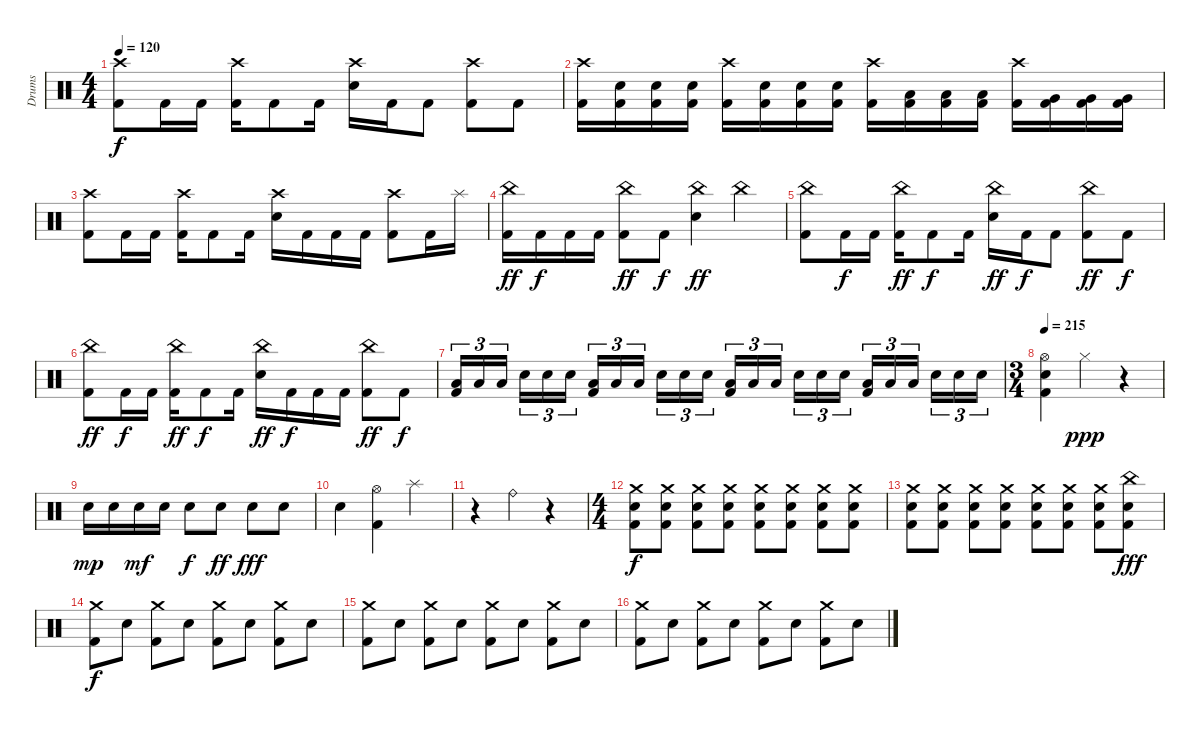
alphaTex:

\track ("Drums" "Drums") {instrument percussion}
\staff {score}
\articulation defaults
\ts (4 4)
\tempo 120
\clef neutral
\ks c
("Crash high (hit)" "Kick (hit) 2").8{dy f} "Kick (hit) 2".16 "Kick (hit) 2".16 ("Crash high (hit)" "Kick (hit) 2").16 "Kick (hit) 2".8 "Kick (hit) 2".16 ("Crash high (hit)" "Electric Snare (hit)").16 "Kick (hit) 2".16 "Kick (hit) 2".8 ("Crash high (hit)" "Kick (hit) 2").8 "Kick (hit) 2".8 |
("Crash high (hit)" "Kick (hit) 2").16 ("Electric Snare (hit)" "Kick (hit) 2").16 ("Electric Snare (hit)" "Kick (hit) 2").16 ("Electric Snare (hit)" "Kick (hit) 2").16 ("Crash high (hit)" "Kick (hit) 2").16 ("Electric Snare (hit)" "Kick (hit) 2").16 ("Electric Snare (hit)" "Kick (hit) 2").16 ("Electric Snare (hit)" "Kick (hit) 2").16 ("Crash high (hit)" "Kick (hit) 2").16 ("Low Tom (hit)" "Kick (hit) 2").16 ("Low Tom (hit)" "Kick (hit) 2").16 ("Low Tom (hit)" "Kick (hit) 2").16 ("Crash high (hit)" "Kick (hit) 2").16 ("Very Low Tom (hit)" "Kick (hit) 2").16 ("Very Low Tom (hit)" "Kick (hit) 2").16 ("Very Low Tom (hit)" "Kick (hit) 2").16 |
("Crash high (hit)" "Kick (hit) 2").8 "Kick (hit) 2".16 "Kick (hit) 2".16 ("Crash high (hit)" "Kick (hit) 2").16 "Kick (hit) 2".8 "Kick (hit) 2".16 ("Crash high (hit)" "Electric Snare (hit)").16 "Kick (hit) 2".16 "Kick (hit) 2".16 "Kick (hit) 2".16 ("Crash high (hit)" "Kick (hit) 2").8 "Kick (hit) 2".16 "Splash (hit)".16 |
("China (hit)" "Kick (hit) 2").16{dy ff} "Kick (hit) 2".16{dy f} "Kick (hit) 2".16 "Kick (hit) 2".16 ("China (hit)" "Kick (hit) 2").8{dy ff} "Kick (hit) 2".8{dy f} ("China (hit)" "Electric Snare (hit)").4{dy ff} "China (hit)".4 |
("China (hit)" "Kick (hit) 2").8 "Kick (hit) 2".16{dy f} "Kick (hit) 2".16 ("China (hit)" "Kick (hit) 2").16{dy ff} "Kick (hit) 2".8{dy f} "Kick (hit) 2".16 ("China (hit)" "Electric Snare (hit)").16{dy ff} "Kick (hit) 2".16{dy f} "Kick (hit) 2".8 ("China (hit)" "Kick (hit) 2").8{dy ff} "Kick (hit) 2".8{dy f} |
("China (hit)" "Kick (hit) 2").8{dy ff} "Kick (hit) 2".16{dy f} "Kick (hit) 2".16 ("China (hit)" "Kick (hit) 2").16{dy ff} "Kick (hit) 2".8{dy f} "Kick (hit) 2".16 ("China (hit)" "Electric Snare (hit)").16{dy ff} "Kick (hit) 2".16{dy f} "Kick (hit) 2".16 "Kick (hit) 2".16 ("China (hit)" "Kick (hit) 2").8{dy ff} "Kick (hit) 2".8{dy f} |
("Low Tom (hit)" "Kick (hit) 2").16{tu (3 2)} "Low Tom (hit)".16{tu (3 2)} "Low Tom (hit)".16{tu (3 2) beam splitsecondary} "Electric Snare (hit)".16{tu (3 2)} "Electric Snare (hit)".16{tu (3 2)} "Electric Snare (hit)".16{tu (3 2)} ("Low Tom (hit)" "Kick (hit) 2").16{tu (3 2)} "Low Tom (hit)".16{tu (3 2)} "Low Tom (hit)".16{tu (3 2) beam splitsecondary} "Electric Snare (hit)".16{tu (3 2)} "Electric Snare (hit)".16{tu (3 2)} "Electric Snare (hit)".16{tu (3 2)} ("Low Tom (hit)" "Kick (hit) 2").16{tu (3 2)} "Low Tom (hit)".16{tu (3 2)} "Low Tom (hit)".16{tu (3 2) beam splitsecondary} "Electric Snare (hit)".16{tu (3 2)} "Electric Snare (hit)".16{tu (3 2)} "Electric Snare (hit)".16{tu (3 2)} ("Low Tom (hit)" "Kick (hit) 2").16{tu (3 2)} "Low Tom (hit)".16{tu (3 2)} "Low Tom (hit)".16{tu (3 2) beam splitsecondary} "Electric Snare (hit)".16{tu (3 2)} "Electric Snare (hit)".16{tu (3 2)} "Electric Snare (hit)".16{tu (3 2)} |
\ts (3 4)
\tempo 215
("Hi-Hat (open)" "Electric Snare (hit)" "Kick (hit) 2").4 "Hi-Hat (closed)".4{dy ppp} r.4 |
"Electric Snare (hit)".16{dy mp} "Electric Snare (hit)".16 "Electric Snare (hit)".16{dy mf} "Electric Snare (hit)".16 "Electric Snare (hit)".8{dy f} "Electric Snare (hit)".8{dy ff} "Electric Snare (hit)".8{dy fff} "Electric Snare (hit)".8 |
"Electric Snare (hit)".4 ("Hi-Hat (open)" "Kick (hit) 2").4 "Splash (hit)".4 |
r.4 "Ride (bell)".4 r.4 |
\ts (4 4)
("Crash medium (hit)" "Electric Snare (hit)" "Kick (hit) 2").8{dy f} ("Crash medium (hit)" "Electric Snare (hit)" "Kick (hit) 2").8 ("Crash medium (hit)" "Electric Snare (hit)" "Kick (hit) 2").8 ("Crash medium (hit)" "Electric Snare (hit)" "Kick (hit) 2").8 ("Crash medium (hit)" "Electric Snare (hit)" "Kick (hit) 2").8 ("Crash medium (hit)" "Electric Snare (hit)" "Kick (hit) 2").8 ("Crash medium (hit)" "Electric Snare (hit)" "Kick (hit) 2").8 ("Crash medium (hit)" "Electric Snare (hit)" "Kick (hit) 2").8 |
("Crash medium (hit)" "Electric Snare (hit)" "Kick (hit) 2").8 ("Crash medium (hit)" "Electric Snare (hit)" "Kick (hit) 2").8 ("Crash medium (hit)" "Electric Snare (hit)" "Kick (hit) 2").8 ("Crash medium (hit)" "Electric Snare (hit)" "Kick (hit) 2").8 ("Crash medium (hit)" "Electric Snare (hit)" "Kick (hit) 2").8 ("Crash medium (hit)" "Electric Snare (hit)" "Kick (hit) 2").8 ("Crash medium (hit)" "Electric Snare (hit)" "Kick (hit) 2").8 ("China (hit)" "Electric Snare (hit)" "Kick (hit) 2").8{dy fff} |
("Crash medium (hit)" "Kick (hit) 2").8{dy f} "Electric Snare (hit)".8 ("Crash medium (hit)" "Kick (hit) 2").8 "Electric Snare (hit)".8 ("Crash medium (hit)" "Kick (hit) 2").8 "Electric Snare (hit)".8 ("Crash medium (hit)" "Kick (hit) 2").8 "Electric Snare (hit)".8 |
("Crash medium (hit)" "Kick (hit) 2").8 "Electric Snare (hit)".8 ("Crash medium (hit)" "Kick (hit) 2").8 "Electric Snare (hit)".8 ("Crash medium (hit)" "Kick (hit) 2").8 "Electric Snare (hit)".8 ("Crash medium (hit)" "Kick (hit) 2").8 "Electric Snare (hit)".8 |
("Crash medium (hit)" "Kick (hit) 2").8 "Electric Snare (hit)".8 ("Crash medium (hit)" "Kick (hit) 2").8 "Electric Snare (hit)".8 ("Crash medium (hit)" "Kick (hit) 2").8 "Electric Snare (hit)".8 ("Crash medium (hit)" "Kick (hit) 2").8 "Electric Snare (hit)".8
